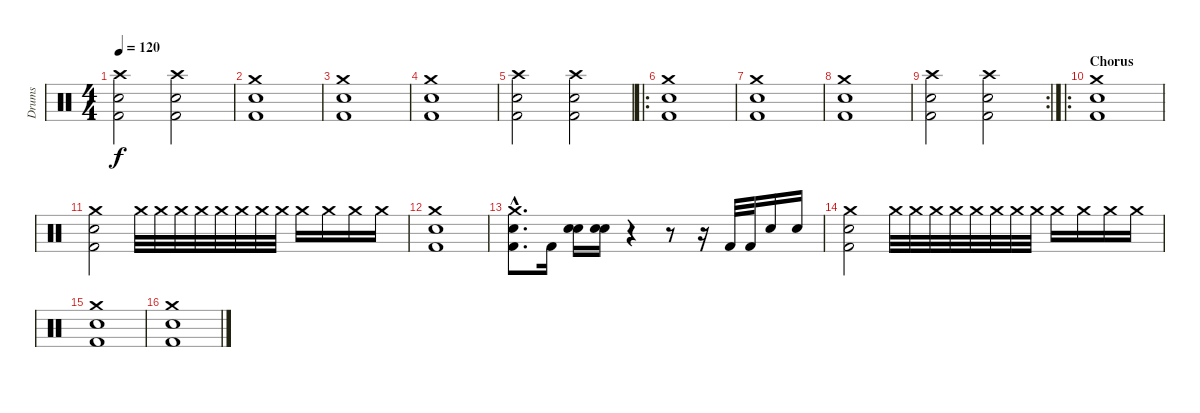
\track ("Drums" "Drums") {instrument percussion}
\staff {score}
\articulation defaults
\ts (4 4)
\tempo 120
\clef neutral
\ks c
("Crash high (hit)" "Snare (hit) 2" "Kick (hit) 2").2{dy f} ("Crash high (hit)" "Snare (hit) 2" "Kick (hit) 2").2 |
("Crash medium (hit)" "Snare (hit) 2" "Kick (hit) 2").1 |
("Crash medium (hit)" "Snare (hit) 2" "Kick (hit) 2").1 |
("Crash medium (hit)" "Snare (hit) 2" "Kick (hit) 2").1 |
("Crash high (hit)" "Snare (hit) 2" "Kick (hit) 2").2 ("Crash high (hit)" "Snare (hit) 2" "Kick (hit) 2").2 |
\ro
("Crash medium (hit)" "Snare (hit) 2" "Kick (hit) 2").1 |
("Crash medium (hit)" "Snare (hit) 2" "Kick (hit) 2").1 |
("Crash medium (hit)" "Snare (hit) 2" "Kick (hit) 2").1 |
\rc 2
("Crash high (hit)" "Snare (hit) 2" "Kick (hit) 2").2 ("Crash high (hit)" "Snare (hit) 2" "Kick (hit) 2").2 |
\ro
\section ("" "Chorus")
("Crash medium (hit)" "Snare (hit) 2" "Kick (hit) 2").1 |
("Crash medium (hit)" "Snare (hit) 2" "Kick (hit) 2").2 "Crash medium (hit)".32 "Crash medium (hit)".32 "Crash medium (hit)".32 "Crash medium (hit)".32 "Crash medium (hit)".32 "Crash medium (hit)".32 "Crash medium (hit)".32 "Crash medium (hit)".32 "Crash medium (hit)".16 "Crash medium (hit)".16 "Crash medium (hit)".16 "Crash medium (hit)".16 |
("Crash medium (hit)" "Snare (hit) 2" "Kick (hit) 2").1 |
("Crash medium (hit)"{hac} "Snare (hit) 2"{hac} "Kick (hit) 2"{hac}).8{d} "Kick (hit) 2".16 ("Snare (hit) 2" "Snare (hit) 2").16 ("Snare (hit) 2" "Snare (hit) 2").16 r.4 r.8 r.16 "Kick (hit) 2".32 "Kick (hit) 2".32 "Snare (hit) 2".16 "Snare (hit) 2".16 |
("Crash medium (hit)" "Snare (hit) 2" "Kick (hit) 2").2 "Crash medium (hit)".32 "Crash medium (hit)".32 "Crash medium (hit)".32 "Crash medium (hit)".32 "Crash medium (hit)".32 "Crash medium (hit)".32 "Crash medium (hit)".32 "Crash medium (hit)".32 "Crash medium (hit)".16 "Crash medium (hit)".16 "Crash medium (hit)".16 "Crash medium (hit)".16 |
("Crash medium (hit)" "Snare (hit) 2" "Kick (hit) 2").1 |
("Crash medium (hit)" "Snare (hit) 2" "Kick (hit) 2").1
